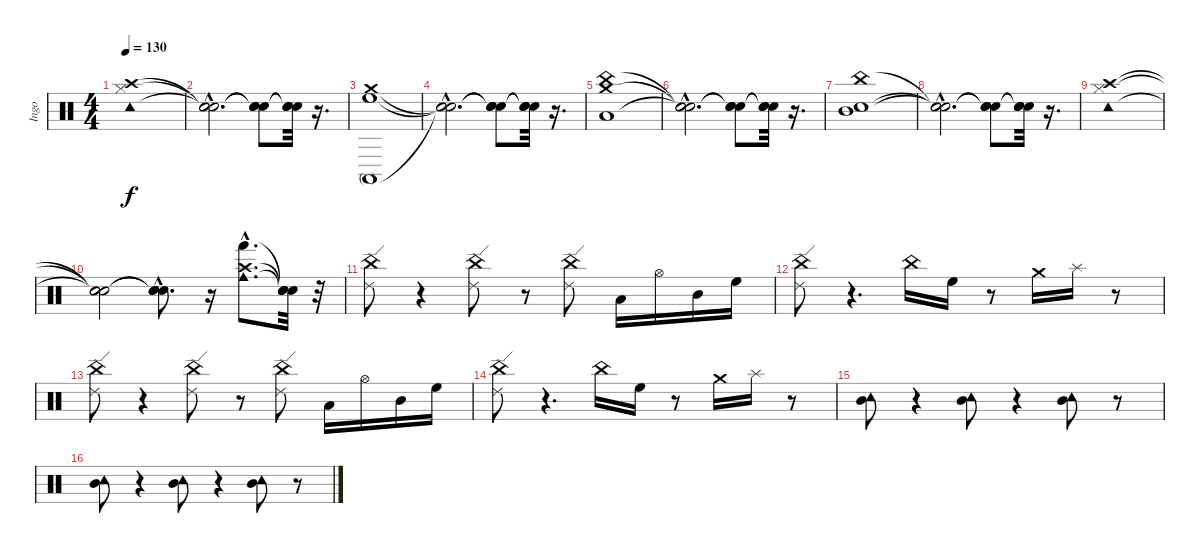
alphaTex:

\track ("Ingo" "Ingo") {instrument percussion}
\staff {score}
\articulation defaults
\ts (4 4)
\tempo 130
\clef neutral
\ks c
("Tambourine (hit)" "Hi-Hat (closed)" "Crash high (hit)").1{dy f} |
("Snare (hit)"{hac t} "Snare (hit)"{hac t} "Snare (hit)"{hac t}).2{d} ("Snare (hit)"{t} "Snare (hit)"{t} "Snare (hit)"{t}).8 ("Snare (hit)"{t} "Snare (hit)"{t} "Snare (hit)"{t}).32 r.16{d} |
("Conga high (mute)" "High Floor Tom (hit)" "Crash medium (hit)").1 |
("Snare (hit)"{hac t} "Snare (hit)"{hac t} "Snare (hit)"{hac t}).2{d} ("Snare (hit)"{t} "Snare (hit)"{t} "Snare (hit)"{t}).8 ("Snare (hit)"{t} "Snare (hit)"{t} "Snare (hit)"{t}).32 r.16{d} |
("Crash medium (hit)" "Low Tom (hit)" "China (hit)").1 |
("Snare (hit)"{hac t} "Snare (hit)"{hac t} "Snare (hit)"{hac t}).2{d} ("Snare (hit)"{t} "Snare (hit)"{t} "Snare (hit)"{t}).8 ("Snare (hit)"{t} "Snare (hit)"{t} "Snare (hit)"{t}).32 r.16{d} |
("China (hit)" "Electric Snare (hit)" "Mid Tom (hit)").1 |
("Snare (hit)"{hac t} "Snare (hit)"{hac t} "Snare (hit)"{hac t}).2{d} ("Snare (hit)"{t} "Snare (hit)"{t} "Snare (hit)"{t}).8 ("Snare (hit)"{t} "Snare (hit)"{t} "Snare (hit)"{t}).32 r.16{d} |
("Tambourine (hit)" "Hi-Hat (closed)" "Crash high (hit)").1 |
("Snare (hit)"{t} "Snare (hit)"{t} "Snare (hit)"{t}).2 ("Snare (hit)"{hac t} "Snare (hit)"{hac t} "Snare (hit)"{hac t}).8{d} r.16 ("Hand (hit)"{hac} "Crash high (hit)"{hac} "Cowbell medium (hit)"{hac}).8{d} ("Snare (hit)"{t} "Snare (hit)"{t} "Snare (hit)"{t}).32 r.32 |
("Ride (edge) 2" "China (hit)").8 r.4 ("Ride (edge) 2" "China (hit)").8 r.8 ("Ride (edge) 2" "China (hit)").8 "Low Tom (hit)".16 "Hi-Hat (open)".16 "Mid Tom (hit)".16 "High Floor Tom (hit)".16 |
("Ride (edge) 2" "China (hit)").8 r.4{d} "China (hit)".16 "High Floor Tom (hit)".16 r.8 "Crash medium (hit)".16 "Splash (hit)".16 r.8 |
("Ride (edge) 2" "China (hit)").8 r.4 ("Ride (edge) 2" "China (hit)").8 r.8 ("Ride (edge) 2" "China (hit)").8 "Low Tom (hit)".16 "Hi-Hat (open)".16 "Mid Tom (hit)".16 "High Floor Tom (hit)".16 |
("Ride (edge) 2" "China (hit)").8 r.4{d} "China (hit)".16 "High Floor Tom (hit)".16 r.8 "Crash medium (hit)".16 "Splash (hit)".16 r.8 |
("Mid Tom (hit)" "Tambourine (hit)").8 r.4 ("Mid Tom (hit)" "Tambourine (hit)").8 r.4 ("Mid Tom (hit)" "Tambourine (hit)").8 r.8 |
("Mid Tom (hit)" "Tambourine (hit)").8 r.4 ("Mid Tom (hit)" "Tambourine (hit)").8 r.4 ("Mid Tom (hit)" "Tambourine (hit)").8 r.8
